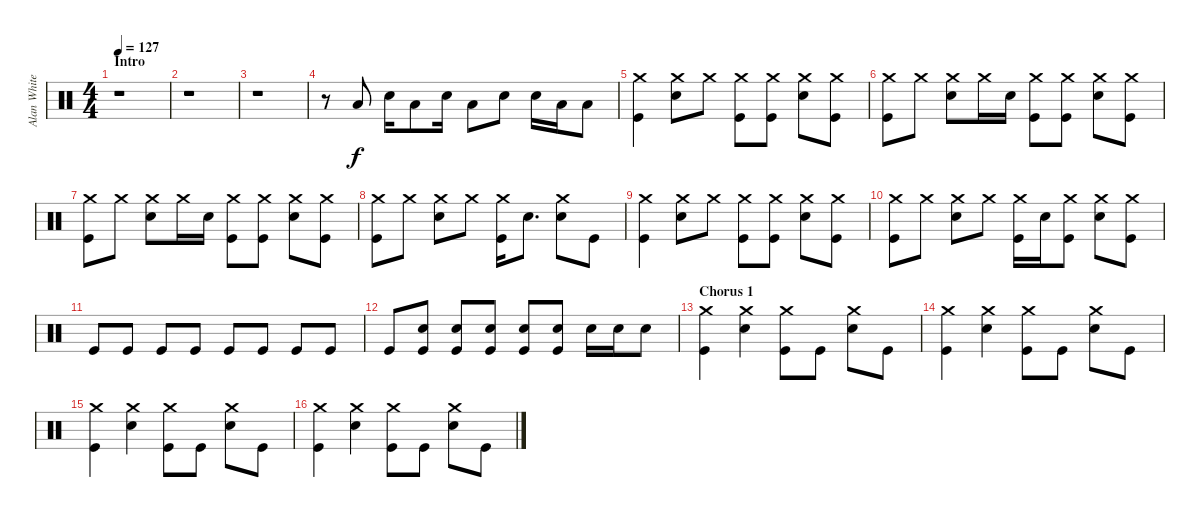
\track ("Alan White (Percussion)" "Alan White") {instrument percussion}
\staff {score}
\articulation defaults
\ts (4 4)
\section ("" "Intro")
\tempo 127
\clef neutral
\ks c
r.1{dy f} |
r.1 |
r.1 |
r.8 "Low Tom (hit)".8 "Snare (hit) 2".16 "Low Tom (hit)".8 "Snare (hit) 2".16 "Low Tom (hit)".8 "Snare (hit) 2".8 "Snare (hit) 2".16 "Low Tom (hit)".16 "Low Tom (hit)".8 |
("Crash medium (hit)" "Kick (hit)").4 ("Crash medium (hit)" "Snare (hit) 2").8 "Crash medium (hit)".8 ("Crash medium (hit)" "Kick (hit)").8 ("Crash medium (hit)" "Kick (hit)").8 ("Crash medium (hit)" "Snare (hit) 2").8 ("Crash medium (hit)" "Kick (hit)").8 |
("Crash medium (hit)" "Kick (hit)").8 "Crash medium (hit)".8 ("Crash medium (hit)" "Snare (hit) 2").8 "Crash medium (hit)".16 "Snare (hit) 2".16 ("Crash medium (hit)" "Kick (hit)").8 ("Crash medium (hit)" "Kick (hit)").8 ("Crash medium (hit)" "Snare (hit) 2").8 ("Crash medium (hit)" "Kick (hit)").8 |
("Crash medium (hit)" "Kick (hit)").8 "Crash medium (hit)".8 ("Crash medium (hit)" "Snare (hit) 2").8 "Crash medium (hit)".16 "Snare (hit) 2".16 ("Crash medium (hit)" "Kick (hit)").8 ("Crash medium (hit)" "Kick (hit)").8 ("Crash medium (hit)" "Snare (hit) 2").8 ("Crash medium (hit)" "Kick (hit)").8 |
("Crash medium (hit)" "Kick (hit)").8 "Crash medium (hit)".8 ("Crash medium (hit)" "Snare (hit) 2").8 "Crash medium (hit)".8 ("Crash medium (hit)" "Kick (hit)").16 "Snare (hit) 2".8{d} ("Crash medium (hit)" "Snare (hit) 2").8 "Kick (hit)".8 |
("Crash medium (hit)" "Kick (hit)").4 ("Crash medium (hit)" "Snare (hit) 2").8 "Crash medium (hit)".8 ("Crash medium (hit)" "Kick (hit)").8 ("Crash medium (hit)" "Kick (hit)").8 ("Crash medium (hit)" "Snare (hit) 2").8 ("Crash medium (hit)" "Kick (hit)").8 |
("Crash medium (hit)" "Kick (hit)").8 "Crash medium (hit)".8 ("Crash medium (hit)" "Snare (hit) 2").8 "Crash medium (hit)".8 ("Crash medium (hit)" "Kick (hit)").16 "Snare (hit) 2".16 ("Crash medium (hit)" "Kick (hit)").8 ("Crash medium (hit)" "Snare (hit) 2").8 ("Crash medium (hit)" "Kick (hit)").8 |
"Kick (hit)".8 "Kick (hit)".8 "Kick (hit)".8 "Kick (hit)".8 "Kick (hit)".8 "Kick (hit)".8 "Kick (hit)".8 "Kick (hit)".8 |
"Kick (hit)".8 ("Snare (hit) 2" "Kick (hit)").8 ("Snare (hit) 2" "Kick (hit)").8 ("Snare (hit) 2" "Kick (hit)").8 ("Snare (hit) 2" "Kick (hit)").8 ("Snare (hit) 2" "Kick (hit)").8 "Snare (hit) 2".16 "Snare (hit) 2".16 "Snare (hit) 2".8 |
\section ("" "Chorus 1")
("Crash medium (hit)" "Kick (hit)").4 ("Crash medium (hit)" "Snare (hit) 2").4 ("Crash medium (hit)" "Kick (hit)").8 "Kick (hit)".8 ("Crash medium (hit)" "Snare (hit) 2").8 "Kick (hit)".8 |
("Crash medium (hit)" "Kick (hit)").4 ("Crash medium (hit)" "Snare (hit) 2").4 ("Crash medium (hit)" "Kick (hit)").8 "Kick (hit)".8 ("Crash medium (hit)" "Snare (hit) 2").8 "Kick (hit)".8 |
("Crash medium (hit)" "Kick (hit)").4 ("Crash medium (hit)" "Snare (hit) 2").4 ("Crash medium (hit)" "Kick (hit)").8 "Kick (hit)".8 ("Crash medium (hit)" "Snare (hit) 2").8 "Kick (hit)".8 |
("Crash medium (hit)" "Kick (hit)").4 ("Crash medium (hit)" "Snare (hit) 2").4 ("Crash medium (hit)" "Kick (hit)").8 "Kick (hit)".8 ("Crash medium (hit)" "Snare (hit) 2").8 "Kick (hit)".8
